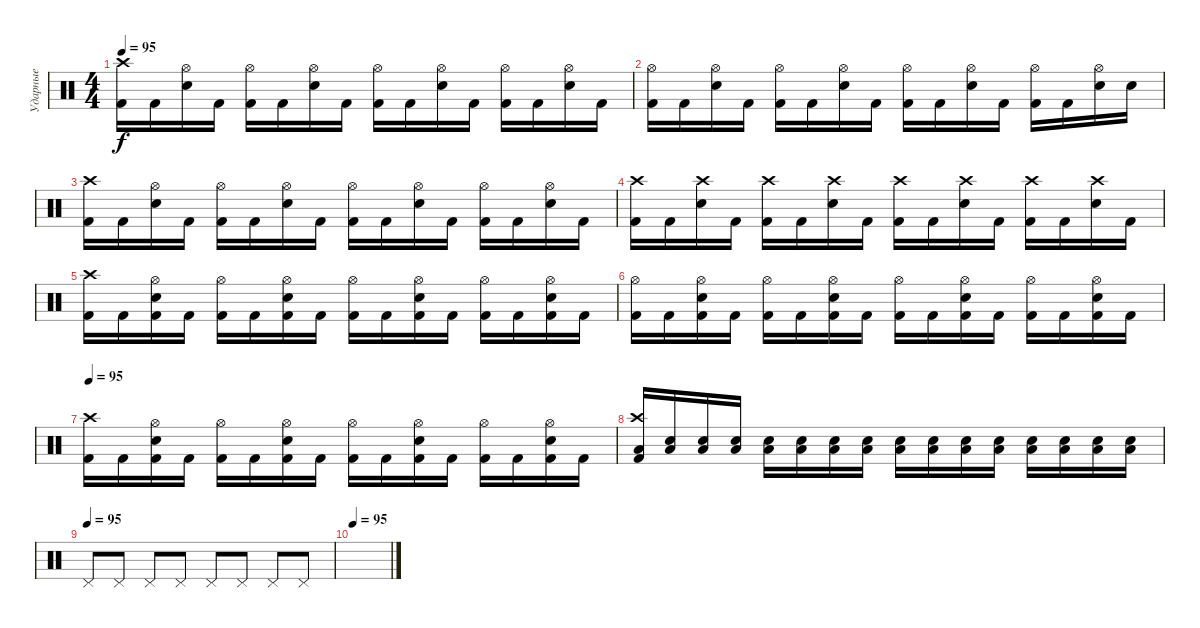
\track ("Ударные" "Ударные") {instrument percussion}
\staff {score}
\articulation defaults
\ts (4 4)
\tempo 95
\clef neutral
\ks c
("Kick (hit) 2" "Crash high (hit)").16{dy f} "Kick (hit) 2".16 ("Electric Snare (hit)" "Hi-Hat (open)").16 "Kick (hit) 2".16 ("Kick (hit) 2" "Hi-Hat (open)").16 "Kick (hit) 2".16 ("Electric Snare (hit)" "Hi-Hat (open)").16 "Kick (hit) 2".16 ("Kick (hit) 2" "Hi-Hat (open)").16 "Kick (hit) 2".16 ("Electric Snare (hit)" "Hi-Hat (open)").16 "Kick (hit) 2".16 ("Kick (hit) 2" "Hi-Hat (open)").16 "Kick (hit) 2".16 ("Electric Snare (hit)" "Hi-Hat (open)").16 "Kick (hit) 2".16 |
("Kick (hit) 2" "Hi-Hat (open)").16 "Kick (hit) 2".16 ("Electric Snare (hit)" "Hi-Hat (open)").16 "Kick (hit) 2".16 ("Kick (hit) 2" "Hi-Hat (open)").16 "Kick (hit) 2".16 ("Electric Snare (hit)" "Hi-Hat (open)").16 "Kick (hit) 2".16 ("Kick (hit) 2" "Hi-Hat (open)").16 "Kick (hit) 2".16 ("Electric Snare (hit)" "Hi-Hat (open)").16 "Kick (hit) 2".16 ("Kick (hit) 2" "Hi-Hat (open)").16 "Kick (hit) 2".16 ("Electric Snare (hit)" "Hi-Hat (open)").16 "Electric Snare (hit)".16 |
("Kick (hit) 2" "Crash high (hit)").16 "Kick (hit) 2".16 ("Electric Snare (hit)" "Hi-Hat (open)").16 "Kick (hit) 2".16 ("Kick (hit) 2" "Hi-Hat (open)").16 "Kick (hit) 2".16 ("Electric Snare (hit)" "Hi-Hat (open)").16 "Kick (hit) 2".16 ("Kick (hit) 2" "Hi-Hat (open)").16 "Kick (hit) 2".16 ("Electric Snare (hit)" "Hi-Hat (open)").16 "Kick (hit) 2".16 ("Kick (hit) 2" "Hi-Hat (open)").16 "Kick (hit) 2".16 ("Electric Snare (hit)" "Hi-Hat (open)").16 "Kick (hit) 2".16 |
("Kick (hit) 2" "Crash high (hit)").16 "Kick (hit) 2".16 ("Electric Snare (hit)" "Crash high (hit)").16 "Kick (hit) 2".16 ("Kick (hit) 2" "Crash high (hit)").16 "Kick (hit) 2".16 ("Electric Snare (hit)" "Crash high (hit)").16 "Kick (hit) 2".16 ("Kick (hit) 2" "Crash high (hit)").16 "Kick (hit) 2".16 ("Electric Snare (hit)" "Crash high (hit)").16 "Kick (hit) 2".16 ("Kick (hit) 2" "Crash high (hit)").16 "Kick (hit) 2".16 ("Electric Snare (hit)" "Crash high (hit)").16 "Kick (hit) 2".16 |
("Kick (hit) 2" "Crash high (hit)").16 "Kick (hit) 2".16 ("Kick (hit) 2" "Electric Snare (hit)" "Hi-Hat (open)").16 "Kick (hit) 2".16 ("Kick (hit) 2" "Hi-Hat (open)").16 "Kick (hit) 2".16 ("Kick (hit) 2" "Electric Snare (hit)" "Hi-Hat (open)").16 "Kick (hit) 2".16 ("Kick (hit) 2" "Hi-Hat (open)").16 "Kick (hit) 2".16 ("Kick (hit) 2" "Electric Snare (hit)" "Hi-Hat (open)").16 "Kick (hit) 2".16 ("Kick (hit) 2" "Hi-Hat (open)").16 "Kick (hit) 2".16 ("Kick (hit) 2" "Electric Snare (hit)" "Hi-Hat (open)").16 "Kick (hit) 2".16 |
("Kick (hit) 2" "Hi-Hat (open)").16 "Kick (hit) 2".16 ("Kick (hit) 2" "Electric Snare (hit)" "Hi-Hat (open)").16 "Kick (hit) 2".16 ("Kick (hit) 2" "Hi-Hat (open)").16 "Kick (hit) 2".16 ("Kick (hit) 2" "Electric Snare (hit)" "Hi-Hat (open)").16 "Kick (hit) 2".16 ("Kick (hit) 2" "Hi-Hat (open)").16 "Kick (hit) 2".16 ("Kick (hit) 2" "Electric Snare (hit)" "Hi-Hat (open)").16 "Kick (hit) 2".16 ("Kick (hit) 2" "Hi-Hat (open)").16 "Kick (hit) 2".16 ("Kick (hit) 2" "Electric Snare (hit)" "Hi-Hat (open)").16 "Kick (hit) 2".16 |
\tempo 95
("Kick (hit) 2" "Crash high (hit)").16 "Kick (hit) 2".16 ("Kick (hit) 2" "Electric Snare (hit)" "Hi-Hat (open)").16 "Kick (hit) 2".16 ("Kick (hit) 2" "Hi-Hat (open)").16 "Kick (hit) 2".16 ("Kick (hit) 2" "Electric Snare (hit)" "Hi-Hat (open)").16 "Kick (hit) 2".16 ("Kick (hit) 2" "Hi-Hat (open)").16 "Kick (hit) 2".16 ("Kick (hit) 2" "Electric Snare (hit)" "Hi-Hat (open)").16 "Kick (hit) 2".16 ("Kick (hit) 2" "Hi-Hat (open)").16 "Kick (hit) 2".16 ("Kick (hit) 2" "Electric Snare (hit)" "Hi-Hat (open)").16 "Kick (hit) 2".16 |
("Kick (hit) 2" "Low Floor Tom (hit)" "Crash high (hit)").16 ("Electric Snare (hit)" "Low Floor Tom (hit)").16 ("Electric Snare (hit)" "Low Floor Tom (hit)").16 ("Electric Snare (hit)" "Low Floor Tom (hit)").16 ("Electric Snare (hit)" "Low Floor Tom (hit)").16 ("Electric Snare (hit)" "Low Floor Tom (hit)").16 ("Electric Snare (hit)" "Low Floor Tom (hit)").16 ("Electric Snare (hit)" "Low Floor Tom (hit)").16 ("Electric Snare (hit)" "Low Floor Tom (hit)").16 ("Electric Snare (hit)" "Low Floor Tom (hit)").16 ("Electric Snare (hit)" "Low Floor Tom (hit)").16 ("Electric Snare (hit)" "Low Floor Tom (hit)").16 ("Electric Snare (hit)" "Low Floor Tom (hit)").16 ("Electric Snare (hit)" "Low Floor Tom (hit)").16 ("Electric Snare (hit)" "Low Floor Tom (hit)").16 ("Electric Snare (hit)" "Low Floor Tom (hit)").16 |
\tempo (95)
"Pedal Hi-Hat (hit)".8 "Pedal Hi-Hat (hit)".8 "Pedal Hi-Hat (hit)".8 "Pedal Hi-Hat (hit)".8 "Pedal Hi-Hat (hit)".8 "Pedal Hi-Hat (hit)".8 "Pedal Hi-Hat (hit)".8 "Pedal Hi-Hat (hit)".8 |
\tempo 95
